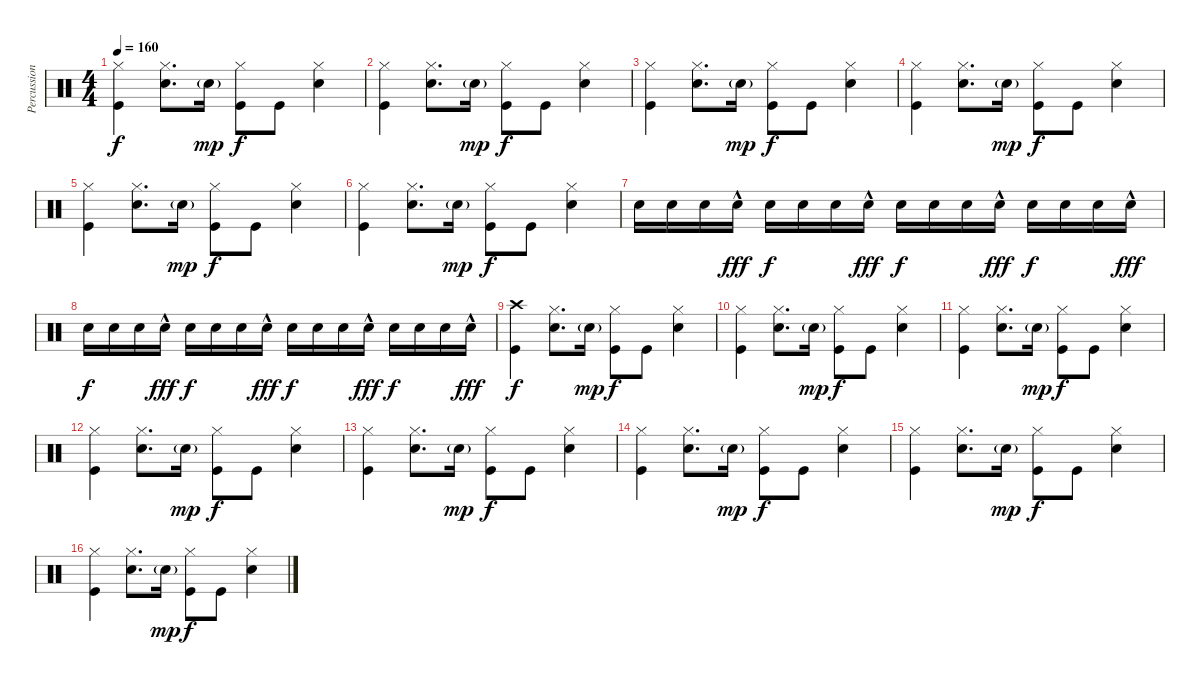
\track ("Percussion" "Percussion") {instrument percussion}
\staff {score}
\articulation defaults
\ts (4 4)
\tempo 160
\clef neutral
\ks c
("Kick (hit)" "Hi-Hat (closed)").4{dy f} ("Snare (hit) 2" "Hi-Hat (closed)").8{d} "Snare (hit) 2"{g}.16{dy mp} ("Kick (hit)" "Hi-Hat (closed)").8{dy f} "Kick (hit)".8 ("Snare (hit) 2" "Hi-Hat (closed)").4 |
("Kick (hit)" "Hi-Hat (closed)").4 ("Snare (hit) 2" "Hi-Hat (closed)").8{d} "Snare (hit) 2"{g}.16{dy mp} ("Kick (hit)" "Hi-Hat (closed)").8{dy f} "Kick (hit)".8 ("Snare (hit) 2" "Hi-Hat (closed)").4 |
("Kick (hit)" "Hi-Hat (closed)").4 ("Snare (hit) 2" "Hi-Hat (closed)").8{d} "Snare (hit) 2"{g}.16{dy mp} ("Kick (hit)" "Hi-Hat (closed)").8{dy f} "Kick (hit)".8 ("Snare (hit) 2" "Hi-Hat (closed)").4 |
("Kick (hit)" "Hi-Hat (closed)").4 ("Snare (hit) 2" "Hi-Hat (closed)").8{d} "Snare (hit) 2"{g}.16{dy mp} ("Kick (hit)" "Hi-Hat (closed)").8{dy f} "Kick (hit)".8 ("Snare (hit) 2" "Hi-Hat (closed)").4 |
("Kick (hit)" "Hi-Hat (closed)").4 ("Snare (hit) 2" "Hi-Hat (closed)").8{d} "Snare (hit) 2"{g}.16{dy mp} ("Kick (hit)" "Hi-Hat (closed)").8{dy f} "Kick (hit)".8 ("Snare (hit) 2" "Hi-Hat (closed)").4 |
("Kick (hit)" "Hi-Hat (closed)").4 ("Snare (hit) 2" "Hi-Hat (closed)").8{d} "Snare (hit) 2"{g}.16{dy mp} ("Kick (hit)" "Hi-Hat (closed)").8{dy f} "Kick (hit)".8 ("Snare (hit) 2" "Hi-Hat (closed)").4 |
"Snare (hit) 2".16 "Snare (hit) 2".16 "Snare (hit) 2".16 "Snare (hit) 2"{hac}.16{dy fff} "Snare (hit) 2".16{dy f} "Snare (hit) 2".16 "Snare (hit) 2".16 "Snare (hit) 2"{hac}.16{dy fff} "Snare (hit) 2".16{dy f} "Snare (hit) 2".16 "Snare (hit) 2".16 "Snare (hit) 2"{hac}.16{dy fff} "Snare (hit) 2".16{dy f} "Snare (hit) 2".16 "Snare (hit) 2".16 "Snare (hit) 2"{hac}.16{dy fff} |
"Snare (hit) 2".16{dy f} "Snare (hit) 2".16 "Snare (hit) 2".16 "Snare (hit) 2"{hac}.16{dy fff} "Snare (hit) 2".16{dy f} "Snare (hit) 2".16 "Snare (hit) 2".16 "Snare (hit) 2"{hac}.16{dy fff} "Snare (hit) 2".16{dy f} "Snare (hit) 2".16 "Snare (hit) 2".16 "Snare (hit) 2"{hac}.16{dy fff} "Snare (hit) 2".16{dy f} "Snare (hit) 2".16 "Snare (hit) 2".16 "Snare (hit) 2"{hac}.16{dy fff} |
("Kick (hit)" "Crash high (hit)").4{dy f} ("Snare (hit) 2" "Hi-Hat (closed)").8{d} "Snare (hit) 2"{g}.16{dy mp} ("Kick (hit)" "Hi-Hat (closed)").8{dy f} "Kick (hit)".8 ("Snare (hit) 2" "Hi-Hat (closed)").4 |
("Kick (hit)" "Hi-Hat (closed)").4 ("Snare (hit) 2" "Hi-Hat (closed)").8{d} "Snare (hit) 2"{g}.16{dy mp} ("Kick (hit)" "Hi-Hat (closed)").8{dy f} "Kick (hit)".8 ("Snare (hit) 2" "Hi-Hat (closed)").4 |
("Kick (hit)" "Hi-Hat (closed)").4 ("Snare (hit) 2" "Hi-Hat (closed)").8{d} "Snare (hit) 2"{g}.16{dy mp} ("Kick (hit)" "Hi-Hat (closed)").8{dy f} "Kick (hit)".8 ("Snare (hit) 2" "Hi-Hat (closed)").4 |
("Kick (hit)" "Hi-Hat (closed)").4 ("Snare (hit) 2" "Hi-Hat (closed)").8{d} "Snare (hit) 2"{g}.16{dy mp} ("Kick (hit)" "Hi-Hat (closed)").8{dy f} "Kick (hit)".8 ("Snare (hit) 2" "Hi-Hat (closed)").4 |
("Kick (hit)" "Hi-Hat (closed)").4 ("Snare (hit) 2" "Hi-Hat (closed)").8{d} "Snare (hit) 2"{g}.16{dy mp} ("Kick (hit)" "Hi-Hat (closed)").8{dy f} "Kick (hit)".8 ("Snare (hit) 2" "Hi-Hat (closed)").4 |
("Kick (hit)" "Hi-Hat (closed)").4 ("Snare (hit) 2" "Hi-Hat (closed)").8{d} "Snare (hit) 2"{g}.16{dy mp} ("Kick (hit)" "Hi-Hat (closed)").8{dy f} "Kick (hit)".8 ("Snare (hit) 2" "Hi-Hat (closed)").4 |
("Kick (hit)" "Hi-Hat (closed)").4 ("Snare (hit) 2" "Hi-Hat (closed)").8{d} "Snare (hit) 2"{g}.16{dy mp} ("Kick (hit)" "Hi-Hat (closed)").8{dy f} "Kick (hit)".8 ("Snare (hit) 2" "Hi-Hat (closed)").4 |
("Kick (hit)" "Hi-Hat (closed)").4 ("Snare (hit) 2" "Hi-Hat (closed)").8{d} "Snare (hit) 2"{g}.16{dy mp} ("Kick (hit)" "Hi-Hat (closed)").8{dy f} "Kick (hit)".8 ("Snare (hit) 2" "Hi-Hat (closed)").4
